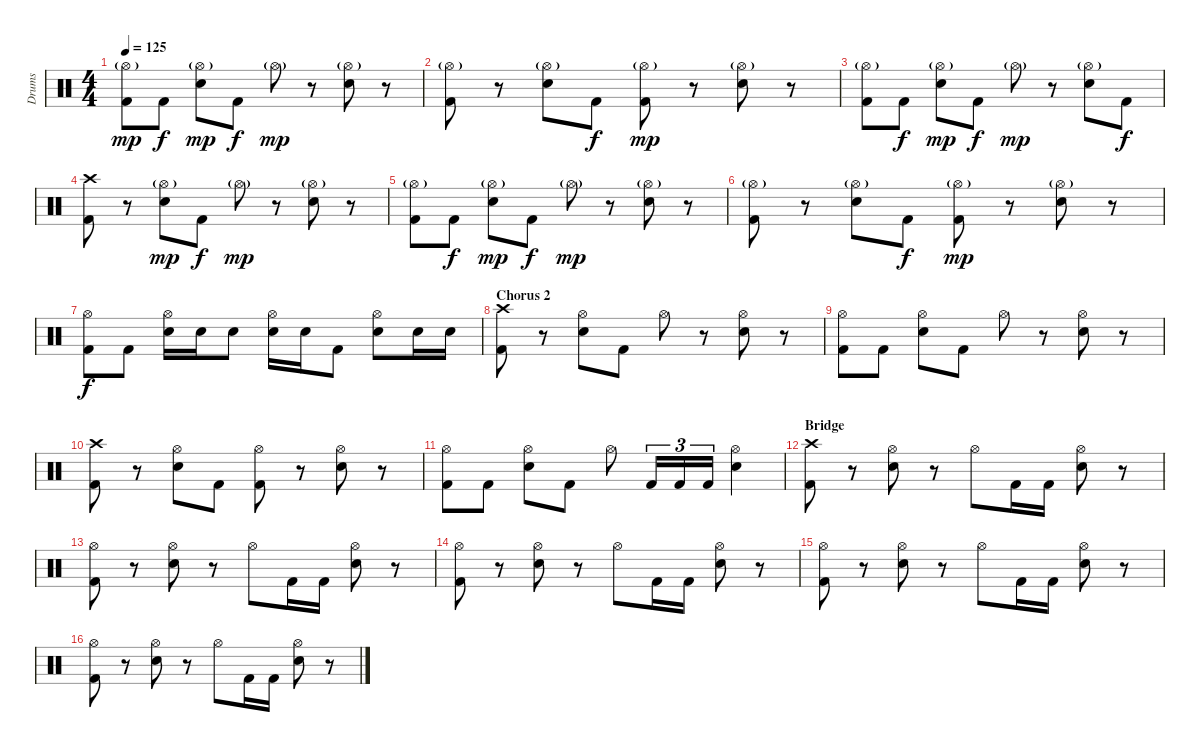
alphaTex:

\track ("Drums" "Drums") {instrument percussion}
\staff {score}
\articulation defaults
\ts (4 4)
\tempo 125
\clef neutral
\ks c
("Hi-Hat (open)"{g} "Kick (hit) 2").8{dy mp} "Kick (hit) 2".8{dy f} ("Hi-Hat (open)"{g} "Snare (hit) 2").8{dy mp} "Kick (hit) 2".8{dy f} "Hi-Hat (open)"{g}.8{dy mp} r.8 ("Hi-Hat (open)"{g} "Snare (hit) 2").8 r.8 |
("Hi-Hat (open)"{g} "Kick (hit) 2").8 r.8 ("Hi-Hat (open)"{g} "Snare (hit) 2").8 "Kick (hit) 2".8{dy f} ("Hi-Hat (open)"{g} "Kick (hit) 2").8{dy mp} r.8 ("Hi-Hat (open)"{g} "Snare (hit) 2").8 r.8 |
("Hi-Hat (open)"{g} "Kick (hit) 2").8 "Kick (hit) 2".8{dy f} ("Hi-Hat (open)"{g} "Snare (hit) 2").8{dy mp} "Kick (hit) 2".8{dy f} "Hi-Hat (open)"{g}.8{dy mp} r.8 ("Hi-Hat (open)"{g} "Snare (hit) 2").8 "Kick (hit) 2".8{dy f} |
("Crash high (hit)" "Kick (hit) 2").8 r.8 ("Hi-Hat (open)"{g} "Snare (hit) 2").8{dy mp} "Kick (hit) 2".8{dy f} "Hi-Hat (open)"{g}.8{dy mp} r.8 ("Hi-Hat (open)"{g} "Snare (hit) 2").8 r.8 |
("Hi-Hat (open)"{g} "Kick (hit) 2").8 "Kick (hit) 2".8{dy f} ("Hi-Hat (open)"{g} "Snare (hit) 2").8{dy mp} "Kick (hit) 2".8{dy f} "Hi-Hat (open)"{g}.8{dy mp} r.8 ("Hi-Hat (open)"{g} "Snare (hit) 2").8 r.8 |
("Hi-Hat (open)"{g} "Kick (hit) 2").8 r.8 ("Hi-Hat (open)"{g} "Snare (hit) 2").8 "Kick (hit) 2".8{dy f} ("Hi-Hat (open)"{g} "Kick (hit) 2").8{dy mp} r.8 ("Hi-Hat (open)"{g} "Snare (hit) 2").8 r.8 |
("Hi-Hat (open)" "Kick (hit) 2").8{dy f} "Kick (hit) 2".8 ("Hi-Hat (open)" "Snare (hit) 2").16 "Snare (hit) 2".16 "Snare (hit) 2".8 ("Hi-Hat (open)" "Snare (hit) 2").16 "Snare (hit) 2".16 "Kick (hit) 2".8 ("Hi-Hat (open)" "Snare (hit) 2").8 "Snare (hit) 2".16 "Snare (hit) 2".16 |
\section ("" "Chorus 2")
("Crash high (hit)" "Kick (hit) 2").8 r.8 ("Hi-Hat (open)" "Snare (hit) 2").8 "Kick (hit) 2".8 "Hi-Hat (open)".8 r.8 ("Hi-Hat (open)" "Snare (hit) 2").8 r.8 |
("Hi-Hat (open)" "Kick (hit) 2").8 "Kick (hit) 2".8 ("Hi-Hat (open)" "Snare (hit) 2").8 "Kick (hit) 2".8 "Hi-Hat (open)".8 r.8 ("Hi-Hat (open)" "Snare (hit) 2").8 r.8 |
("Crash high (hit)" "Kick (hit) 2").8 r.8 ("Hi-Hat (open)" "Snare (hit) 2").8 "Kick (hit) 2".8 ("Hi-Hat (open)" "Kick (hit) 2").8 r.8 ("Hi-Hat (open)" "Snare (hit) 2").8 r.8 |
("Hi-Hat (open)" "Kick (hit) 2").8 "Kick (hit) 2".8 ("Hi-Hat (open)" "Snare (hit) 2").8 "Kick (hit) 2".8 "Hi-Hat (open)".8 "Kick (hit) 2".16{tu (3 2)} "Kick (hit) 2".16{tu (3 2)} "Kick (hit) 2".16{tu (3 2)} ("Hi-Hat (open)" "Snare (hit) 2").4 |
\section ("" "Bridge")
("Crash high (hit)" "Kick (hit) 2").8 r.8 ("Hi-Hat (open)" "Snare (hit) 2").8 r.8 "Hi-Hat (open)".8 "Kick (hit) 2".16 "Kick (hit) 2".16 ("Hi-Hat (open)" "Snare (hit) 2").8 r.8 |
("Hi-Hat (open)" "Kick (hit) 2").8 r.8 ("Hi-Hat (open)" "Snare (hit) 2").8 r.8 "Hi-Hat (open)".8 "Kick (hit) 2".16 "Kick (hit) 2".16 ("Hi-Hat (open)" "Snare (hit) 2").8 r.8 |
("Hi-Hat (open)" "Kick (hit) 2").8 r.8 ("Hi-Hat (open)" "Snare (hit) 2").8 r.8 "Hi-Hat (open)".8 "Kick (hit) 2".16 "Kick (hit) 2".16 ("Hi-Hat (open)" "Snare (hit) 2").8 r.8 |
("Hi-Hat (open)" "Kick (hit) 2").8 r.8 ("Hi-Hat (open)" "Snare (hit) 2").8 r.8 "Hi-Hat (open)".8 "Kick (hit) 2".16 "Kick (hit) 2".16 ("Hi-Hat (open)" "Snare (hit) 2").8 r.8 |
("Hi-Hat (open)" "Kick (hit) 2").8 r.8 ("Hi-Hat (open)" "Snare (hit) 2").8 r.8 "Hi-Hat (open)".8 "Kick (hit) 2".16 "Kick (hit) 2".16 ("Hi-Hat (open)" "Snare (hit) 2").8 r.8
